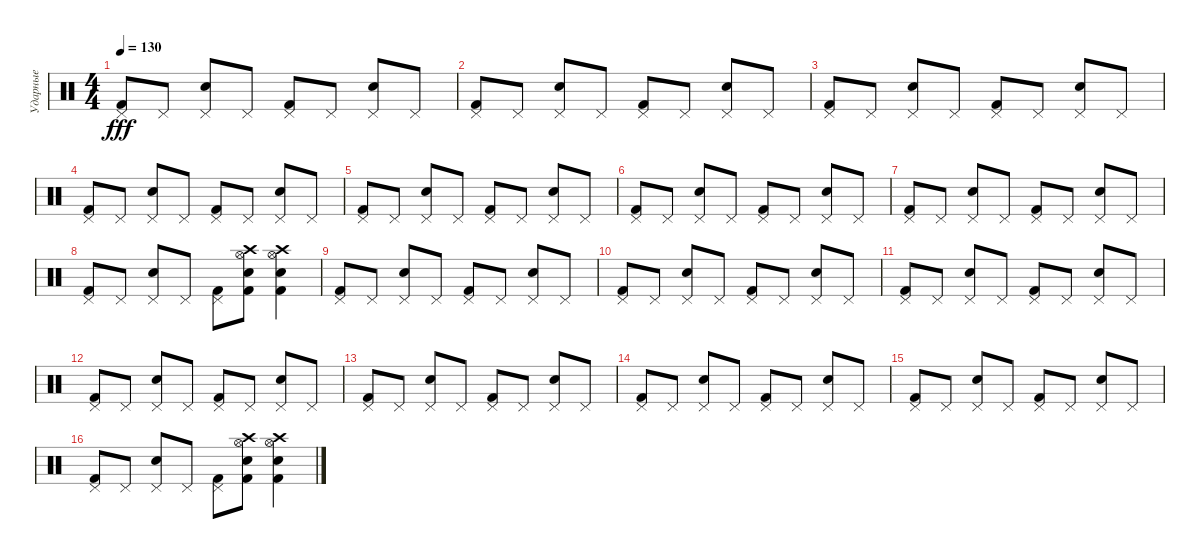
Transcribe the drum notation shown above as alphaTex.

\track ("Ударные" "Ударные") {instrument percussion}
\staff {score}
\articulation defaults
\ts (4 4)
\tempo 130
\clef neutral
\ks c
("Pedal Hi-Hat (hit)" "Kick (hit) 2").8{dy fff} "Pedal Hi-Hat (hit)".8 ("Pedal Hi-Hat (hit)" "Snare (hit) 2").8 "Pedal Hi-Hat (hit)".8 ("Pedal Hi-Hat (hit)" "Kick (hit) 2").8 "Pedal Hi-Hat (hit)".8 ("Pedal Hi-Hat (hit)" "Snare (hit) 2").8 "Pedal Hi-Hat (hit)".8 |
("Pedal Hi-Hat (hit)" "Kick (hit) 2").8 "Pedal Hi-Hat (hit)".8 ("Pedal Hi-Hat (hit)" "Snare (hit) 2").8 "Pedal Hi-Hat (hit)".8 ("Pedal Hi-Hat (hit)" "Kick (hit) 2").8 "Pedal Hi-Hat (hit)".8 ("Pedal Hi-Hat (hit)" "Snare (hit) 2").8 "Pedal Hi-Hat (hit)".8 |
("Pedal Hi-Hat (hit)" "Kick (hit) 2").8 "Pedal Hi-Hat (hit)".8 ("Pedal Hi-Hat (hit)" "Snare (hit) 2").8 "Pedal Hi-Hat (hit)".8 ("Pedal Hi-Hat (hit)" "Kick (hit) 2").8 "Pedal Hi-Hat (hit)".8 ("Pedal Hi-Hat (hit)" "Snare (hit) 2").8 "Pedal Hi-Hat (hit)".8 |
("Pedal Hi-Hat (hit)" "Kick (hit) 2").8 "Pedal Hi-Hat (hit)".8 ("Pedal Hi-Hat (hit)" "Snare (hit) 2").8 "Pedal Hi-Hat (hit)".8 ("Pedal Hi-Hat (hit)" "Kick (hit) 2").8 "Pedal Hi-Hat (hit)".8 ("Pedal Hi-Hat (hit)" "Snare (hit) 2").8 "Pedal Hi-Hat (hit)".8 |
("Pedal Hi-Hat (hit)" "Kick (hit) 2").8 "Pedal Hi-Hat (hit)".8 ("Pedal Hi-Hat (hit)" "Snare (hit) 2").8 "Pedal Hi-Hat (hit)".8 ("Pedal Hi-Hat (hit)" "Kick (hit) 2").8 "Pedal Hi-Hat (hit)".8 ("Pedal Hi-Hat (hit)" "Snare (hit) 2").8 "Pedal Hi-Hat (hit)".8 |
("Pedal Hi-Hat (hit)" "Kick (hit) 2").8 "Pedal Hi-Hat (hit)".8 ("Pedal Hi-Hat (hit)" "Snare (hit) 2").8 "Pedal Hi-Hat (hit)".8 ("Pedal Hi-Hat (hit)" "Kick (hit) 2").8 "Pedal Hi-Hat (hit)".8 ("Pedal Hi-Hat (hit)" "Snare (hit) 2").8 "Pedal Hi-Hat (hit)".8 |
("Pedal Hi-Hat (hit)" "Kick (hit) 2").8 "Pedal Hi-Hat (hit)".8 ("Pedal Hi-Hat (hit)" "Snare (hit) 2").8 "Pedal Hi-Hat (hit)".8 ("Pedal Hi-Hat (hit)" "Kick (hit) 2").8 "Pedal Hi-Hat (hit)".8 ("Pedal Hi-Hat (hit)" "Snare (hit) 2").8 "Pedal Hi-Hat (hit)".8 |
("Pedal Hi-Hat (hit)" "Kick (hit) 2").8 "Pedal Hi-Hat (hit)".8 ("Pedal Hi-Hat (hit)" "Snare (hit) 2").8 "Pedal Hi-Hat (hit)".8 ("Pedal Hi-Hat (hit)" "Kick (hit) 2").8 ("Hi-Hat (open)" "Crash high (hit)" "Snare (hit) 2" "Kick (hit) 2").8 ("Hi-Hat (open)" "Crash high (hit)" "Snare (hit) 2" "Kick (hit) 2").4 |
("Pedal Hi-Hat (hit)" "Kick (hit) 2").8 "Pedal Hi-Hat (hit)".8 ("Pedal Hi-Hat (hit)" "Snare (hit) 2").8 "Pedal Hi-Hat (hit)".8 ("Pedal Hi-Hat (hit)" "Kick (hit) 2").8 "Pedal Hi-Hat (hit)".8 ("Pedal Hi-Hat (hit)" "Snare (hit) 2").8 "Pedal Hi-Hat (hit)".8 |
("Pedal Hi-Hat (hit)" "Kick (hit) 2").8 "Pedal Hi-Hat (hit)".8 ("Pedal Hi-Hat (hit)" "Snare (hit) 2").8 "Pedal Hi-Hat (hit)".8 ("Pedal Hi-Hat (hit)" "Kick (hit) 2").8 "Pedal Hi-Hat (hit)".8 ("Pedal Hi-Hat (hit)" "Snare (hit) 2").8 "Pedal Hi-Hat (hit)".8 |
("Pedal Hi-Hat (hit)" "Kick (hit) 2").8 "Pedal Hi-Hat (hit)".8 ("Pedal Hi-Hat (hit)" "Snare (hit) 2").8 "Pedal Hi-Hat (hit)".8 ("Pedal Hi-Hat (hit)" "Kick (hit) 2").8 "Pedal Hi-Hat (hit)".8 ("Pedal Hi-Hat (hit)" "Snare (hit) 2").8 "Pedal Hi-Hat (hit)".8 |
("Pedal Hi-Hat (hit)" "Kick (hit) 2").8 "Pedal Hi-Hat (hit)".8 ("Pedal Hi-Hat (hit)" "Snare (hit) 2").8 "Pedal Hi-Hat (hit)".8 ("Pedal Hi-Hat (hit)" "Kick (hit) 2").8 "Pedal Hi-Hat (hit)".8 ("Pedal Hi-Hat (hit)" "Snare (hit) 2").8 "Pedal Hi-Hat (hit)".8 |
("Pedal Hi-Hat (hit)" "Kick (hit) 2").8 "Pedal Hi-Hat (hit)".8 ("Pedal Hi-Hat (hit)" "Snare (hit) 2").8 "Pedal Hi-Hat (hit)".8 ("Pedal Hi-Hat (hit)" "Kick (hit) 2").8 "Pedal Hi-Hat (hit)".8 ("Pedal Hi-Hat (hit)" "Snare (hit) 2").8 "Pedal Hi-Hat (hit)".8 |
("Pedal Hi-Hat (hit)" "Kick (hit) 2").8 "Pedal Hi-Hat (hit)".8 ("Pedal Hi-Hat (hit)" "Snare (hit) 2").8 "Pedal Hi-Hat (hit)".8 ("Pedal Hi-Hat (hit)" "Kick (hit) 2").8 "Pedal Hi-Hat (hit)".8 ("Pedal Hi-Hat (hit)" "Snare (hit) 2").8 "Pedal Hi-Hat (hit)".8 |
("Pedal Hi-Hat (hit)" "Kick (hit) 2").8 "Pedal Hi-Hat (hit)".8 ("Pedal Hi-Hat (hit)" "Snare (hit) 2").8 "Pedal Hi-Hat (hit)".8 ("Pedal Hi-Hat (hit)" "Kick (hit) 2").8 "Pedal Hi-Hat (hit)".8 ("Pedal Hi-Hat (hit)" "Snare (hit) 2").8 "Pedal Hi-Hat (hit)".8 |
("Pedal Hi-Hat (hit)" "Kick (hit) 2").8 "Pedal Hi-Hat (hit)".8 ("Pedal Hi-Hat (hit)" "Snare (hit) 2").8 "Pedal Hi-Hat (hit)".8 ("Pedal Hi-Hat (hit)" "Kick (hit) 2").8 ("Hi-Hat (open)" "Crash high (hit)" "Snare (hit) 2" "Kick (hit) 2").8 ("Hi-Hat (open)" "Crash high (hit)" "Snare (hit) 2" "Kick (hit) 2").4
